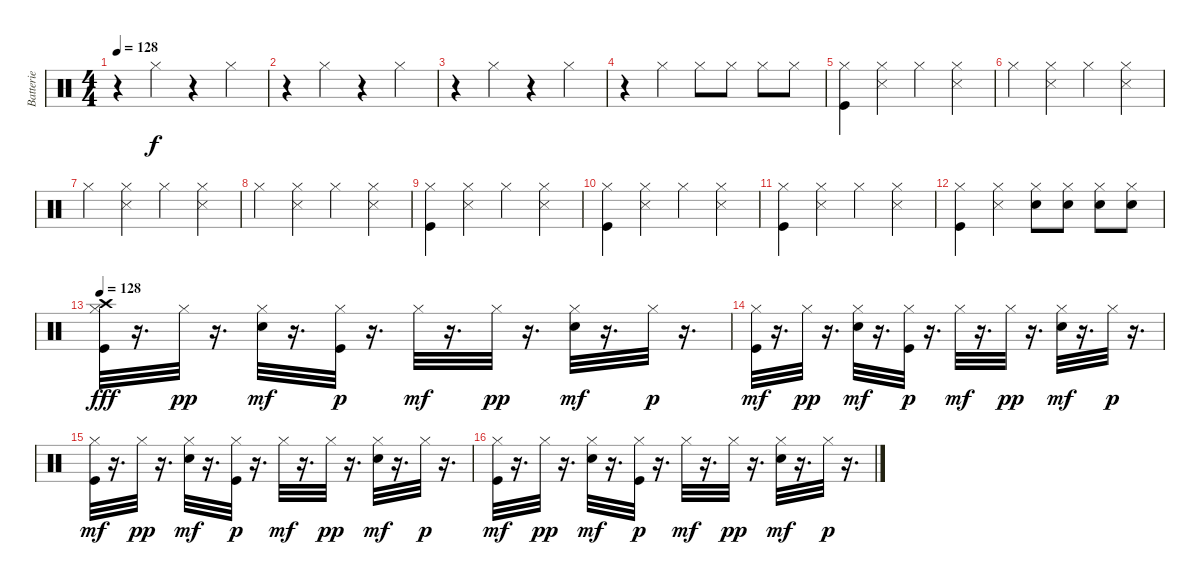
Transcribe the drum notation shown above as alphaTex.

\track ("Batterie" "Batterie") {instrument percussion}
\staff {score}
\articulation defaults
\ts (4 4)
\tempo 128
\clef neutral
\ks c
r.4{dy f} "Hi-Hat (closed)".4 r.4 "Hi-Hat (closed)".4 |
r.4 "Hi-Hat (closed)".4 r.4 "Hi-Hat (closed)".4 |
r.4 "Hi-Hat (closed)".4 r.4 "Hi-Hat (closed)".4 |
r.4 "Hi-Hat (closed)".4 "Hi-Hat (closed)".8 "Hi-Hat (closed)".8 "Hi-Hat (closed)".8 "Hi-Hat (closed)".8 |
("Hi-Hat (closed)" "Kick (hit)").4 ("Hi-Hat (closed)" "Snare (side stick) 3").4 "Hi-Hat (closed)".4 ("Hi-Hat (closed)" "Snare (side stick) 3").4 |
"Hi-Hat (closed)".4 ("Hi-Hat (closed)" "Snare (side stick) 3").4 "Hi-Hat (closed)".4 ("Hi-Hat (closed)" "Snare (side stick) 3").4 |
"Hi-Hat (closed)".4 ("Hi-Hat (closed)" "Snare (side stick) 3").4 "Hi-Hat (closed)".4 ("Hi-Hat (closed)" "Snare (side stick) 3").4 |
"Hi-Hat (closed)".4 ("Hi-Hat (closed)" "Snare (side stick) 3").4 "Hi-Hat (closed)".4 ("Hi-Hat (closed)" "Snare (side stick) 3").4 |
("Hi-Hat (closed)" "Kick (hit)").4 ("Hi-Hat (closed)" "Snare (side stick) 3").4 "Hi-Hat (closed)".4 ("Hi-Hat (closed)" "Snare (side stick) 3").4 |
("Hi-Hat (closed)" "Kick (hit)").4 ("Hi-Hat (closed)" "Snare (side stick) 3").4 "Hi-Hat (closed)".4 ("Hi-Hat (closed)" "Snare (side stick) 3").4 |
("Hi-Hat (closed)" "Kick (hit)").4 ("Hi-Hat (closed)" "Snare (side stick) 3").4 "Hi-Hat (closed)".4 ("Hi-Hat (closed)" "Snare (side stick) 3").4 |
("Hi-Hat (closed)" "Kick (hit)").4 ("Hi-Hat (closed)" "Snare (side stick) 3").4 ("Hi-Hat (closed)" "Snare (hit) 2").8 ("Hi-Hat (closed)" "Snare (hit) 2").8 ("Hi-Hat (closed)" "Snare (hit) 2").8 ("Hi-Hat (closed)" "Snare (hit) 2").8 |
\tempo 128
("Kick (hit)" "Hi-Hat (closed)" "Crash high (hit)").32{dy fff} r.16{d} "Hi-Hat (closed)".32{dy pp} r.16{d} ("Electric Snare (hit)" "Hi-Hat (closed)").32{dy mf} r.16{d} ("Kick (hit)" "Hi-Hat (closed)").32{dy p} r.16{d} "Hi-Hat (closed)".32{dy mf} r.16{d} "Hi-Hat (closed)".32{dy pp} r.16{d} ("Electric Snare (hit)" "Hi-Hat (closed)").32{dy mf} r.16{d} "Hi-Hat (closed)".32{dy p} r.16{d} |
("Kick (hit)" "Hi-Hat (closed)").32{dy mf} r.16{d} "Hi-Hat (closed)".32{dy pp} r.16{d} ("Electric Snare (hit)" "Hi-Hat (closed)").32{dy mf} r.16{d} ("Kick (hit)" "Hi-Hat (closed)").32{dy p} r.16{d} "Hi-Hat (closed)".32{dy mf} r.16{d} "Hi-Hat (closed)".32{dy pp} r.16{d} ("Electric Snare (hit)" "Hi-Hat (closed)").32{dy mf} r.16{d} "Hi-Hat (closed)".32{dy p} r.16{d} |
("Kick (hit)" "Hi-Hat (closed)").32{dy mf} r.16{d} "Hi-Hat (closed)".32{dy pp} r.16{d} ("Electric Snare (hit)" "Hi-Hat (closed)").32{dy mf} r.16{d} ("Kick (hit)" "Hi-Hat (closed)").32{dy p} r.16{d} "Hi-Hat (closed)".32{dy mf} r.16{d} "Hi-Hat (closed)".32{dy pp} r.16{d} ("Electric Snare (hit)" "Hi-Hat (closed)").32{dy mf} r.16{d} "Hi-Hat (closed)".32{dy p} r.16{d} |
("Kick (hit)" "Hi-Hat (closed)").32{dy mf} r.16{d} "Hi-Hat (closed)".32{dy pp} r.16{d} ("Electric Snare (hit)" "Hi-Hat (closed)").32{dy mf} r.16{d} ("Kick (hit)" "Hi-Hat (closed)").32{dy p} r.16{d} "Hi-Hat (closed)".32{dy mf} r.16{d} "Hi-Hat (closed)".32{dy pp} r.16{d} ("Electric Snare (hit)" "Hi-Hat (closed)").32{dy mf} r.16{d} "Hi-Hat (closed)".32{dy p} r.16{d}
